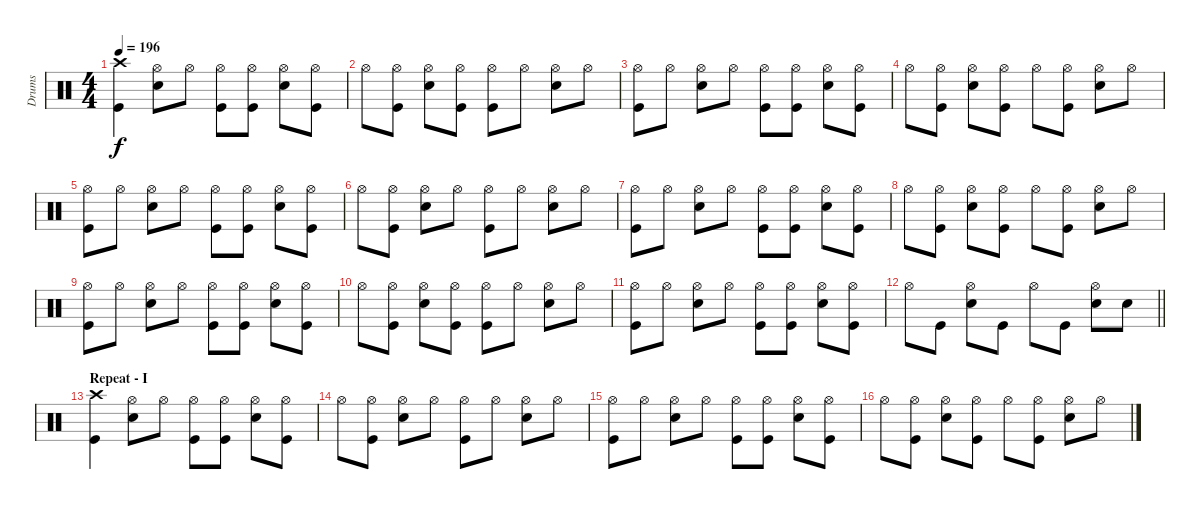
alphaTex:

\track ("Drums" "Drums") {instrument percussion}
\staff {score}
\articulation defaults
\ts (4 4)
\tempo 196
\clef neutral
\ks c
("Crash high (hit)" "Kick (hit)").4{dy f} ("Hi-Hat (open)" "Electric Snare (hit)").8 "Hi-Hat (open)".8 ("Hi-Hat (open)" "Kick (hit)").8 ("Hi-Hat (open)" "Kick (hit)").8 ("Hi-Hat (open)" "Electric Snare (hit)").8 ("Hi-Hat (open)" "Kick (hit)").8 |
"Hi-Hat (open)".8 ("Hi-Hat (open)" "Kick (hit)").8 ("Hi-Hat (open)" "Electric Snare (hit)").8 ("Hi-Hat (open)" "Kick (hit)").8 ("Hi-Hat (open)" "Kick (hit)").8 "Hi-Hat (open)".8 ("Hi-Hat (open)" "Electric Snare (hit)").8 "Hi-Hat (open)".8 |
("Hi-Hat (open)" "Kick (hit)").8 "Hi-Hat (open)".8 ("Hi-Hat (open)" "Electric Snare (hit)").8 "Hi-Hat (open)".8 ("Hi-Hat (open)" "Kick (hit)").8 ("Hi-Hat (open)" "Kick (hit)").8 ("Hi-Hat (open)" "Electric Snare (hit)").8 ("Hi-Hat (open)" "Kick (hit)").8 |
"Hi-Hat (open)".8 ("Hi-Hat (open)" "Kick (hit)").8 ("Hi-Hat (open)" "Electric Snare (hit)").8 ("Hi-Hat (open)" "Kick (hit)").8 "Hi-Hat (open)".8 ("Hi-Hat (open)" "Kick (hit)").8 ("Hi-Hat (open)" "Electric Snare (hit)").8 "Hi-Hat (open)".8 |
("Hi-Hat (open)" "Kick (hit)").8 "Hi-Hat (open)".8 ("Hi-Hat (open)" "Electric Snare (hit)").8 "Hi-Hat (open)".8 ("Hi-Hat (open)" "Kick (hit)").8 ("Hi-Hat (open)" "Kick (hit)").8 ("Hi-Hat (open)" "Electric Snare (hit)").8 ("Hi-Hat (open)" "Kick (hit)").8 |
"Hi-Hat (open)".8 ("Hi-Hat (open)" "Kick (hit)").8 ("Hi-Hat (open)" "Electric Snare (hit)").8 "Hi-Hat (open)".8 ("Hi-Hat (open)" "Kick (hit)").8 "Hi-Hat (open)".8 ("Hi-Hat (open)" "Electric Snare (hit)").8 "Hi-Hat (open)".8 |
("Hi-Hat (open)" "Kick (hit)").8 "Hi-Hat (open)".8 ("Hi-Hat (open)" "Electric Snare (hit)").8 "Hi-Hat (open)".8 ("Hi-Hat (open)" "Kick (hit)").8 ("Hi-Hat (open)" "Kick (hit)").8 ("Hi-Hat (open)" "Electric Snare (hit)").8 ("Hi-Hat (open)" "Kick (hit)").8 |
"Hi-Hat (open)".8 ("Hi-Hat (open)" "Kick (hit)").8 ("Hi-Hat (open)" "Electric Snare (hit)").8 ("Hi-Hat (open)" "Kick (hit)").8 "Hi-Hat (open)".8 ("Hi-Hat (open)" "Kick (hit)").8 ("Hi-Hat (open)" "Electric Snare (hit)").8 "Hi-Hat (open)".8 |
("Hi-Hat (open)" "Kick (hit)").8 "Hi-Hat (open)".8 ("Hi-Hat (open)" "Electric Snare (hit)").8 "Hi-Hat (open)".8 ("Hi-Hat (open)" "Kick (hit)").8 ("Hi-Hat (open)" "Kick (hit)").8 ("Hi-Hat (open)" "Electric Snare (hit)").8 ("Hi-Hat (open)" "Kick (hit)").8 |
"Hi-Hat (open)".8 ("Hi-Hat (open)" "Kick (hit)").8 ("Hi-Hat (open)" "Electric Snare (hit)").8 ("Hi-Hat (open)" "Kick (hit)").8 ("Hi-Hat (open)" "Kick (hit)").8 "Hi-Hat (open)".8 ("Hi-Hat (open)" "Electric Snare (hit)").8 "Hi-Hat (open)".8 |
("Hi-Hat (open)" "Kick (hit)").8 "Hi-Hat (open)".8 ("Hi-Hat (open)" "Electric Snare (hit)").8 "Hi-Hat (open)".8 ("Hi-Hat (open)" "Kick (hit)").8 ("Hi-Hat (open)" "Kick (hit)").8 ("Hi-Hat (open)" "Electric Snare (hit)").8 ("Hi-Hat (open)" "Kick (hit)").8 |
\barLineRight lightlight "Hi-Hat (open)".8 "Kick (hit)".8
("Hi-Hat (open)" "Electric Snare (hit)").8 "Kick (hit)".8 "Hi-Hat (open)".8 "Kick (hit)".8 ("Hi-Hat (open)" "Electric Snare (hit)").8 "Electric Snare (hit)".8 |
\section ("" "Repeat - I")
("Crash high (hit)" "Kick (hit)").4 ("Hi-Hat (open)" "Electric Snare (hit)").8 "Hi-Hat (open)".8 ("Hi-Hat (open)" "Kick (hit)").8 ("Hi-Hat (open)" "Kick (hit)").8 ("Hi-Hat (open)" "Electric Snare (hit)").8 ("Hi-Hat (open)" "Kick (hit)").8 |
"Hi-Hat (open)".8 ("Hi-Hat (open)" "Kick (hit)").8 ("Hi-Hat (open)" "Electric Snare (hit)").8 "Hi-Hat (open)".8 ("Hi-Hat (open)" "Kick (hit)").8 "Hi-Hat (open)".8 ("Hi-Hat (open)" "Electric Snare (hit)").8 "Hi-Hat (open)".8 |
("Hi-Hat (open)" "Kick (hit)").8 "Hi-Hat (open)".8 ("Hi-Hat (open)" "Electric Snare (hit)").8 "Hi-Hat (open)".8 ("Hi-Hat (open)" "Kick (hit)").8 ("Hi-Hat (open)" "Kick (hit)").8 ("Hi-Hat (open)" "Electric Snare (hit)").8 ("Hi-Hat (open)" "Kick (hit)").8 |
"Hi-Hat (open)".8 ("Hi-Hat (open)" "Kick (hit)").8 ("Hi-Hat (open)" "Electric Snare (hit)").8 ("Hi-Hat (open)" "Kick (hit)").8 "Hi-Hat (open)".8 ("Hi-Hat (open)" "Kick (hit)").8 ("Hi-Hat (open)" "Electric Snare (hit)").8 "Hi-Hat (open)".8
